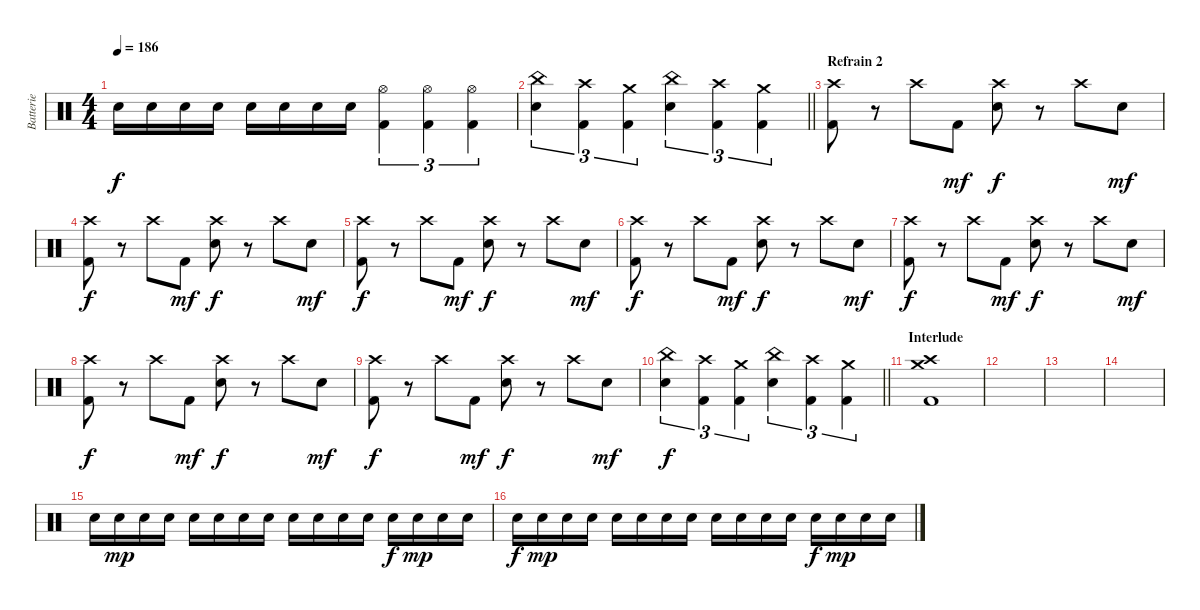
\track ("Batterie" "Batterie") {instrument percussion}
\staff {score}
\articulation defaults
\ts (4 4)
\tempo 186
\clef neutral
\ks c "Electric Snare (hit)".16{dy f} "Electric Snare (hit)".16 "Electric Snare (hit)".16 "Electric Snare (hit)".16 "Electric Snare (hit)".16 "Electric Snare (hit)".16 "Electric Snare (hit)".16 "Electric Snare (hit)".16
("Kick (hit) 2" "Hi-Hat (open)").4{tu (3 2)} ("Kick (hit) 2" "Hi-Hat (open)").4{tu (3 2)} ("Kick (hit) 2" "Hi-Hat (open)").4{tu (3 2)} |
\barLineRight lightlight
("Electric Snare (hit)" "China (hit)").4{tu (3 2)} ("Kick (hit) 2" "Crash high (hit)").4{tu (3 2)} ("Kick (hit) 2" "Crash medium (hit)").4{tu (3 2)} ("Electric Snare (hit)" "China (hit)").4{tu (3 2)} ("Kick (hit) 2" "Crash high (hit)").4{tu (3 2)} ("Kick (hit) 2" "Crash medium (hit)").4{tu (3 2)} |
\section ("" "Refrain 2")
("Kick (hit) 2" "Crash high (hit)").8 r.8 "Crash high (hit)".8 "Kick (hit) 2".8{dy mf} ("Electric Snare (hit)" "Crash high (hit)").8{dy f} r.8 "Crash high (hit)".8 "Electric Snare (hit)".8{dy mf} |
("Kick (hit) 2" "Crash high (hit)").8{dy f} r.8 "Crash high (hit)".8 "Kick (hit) 2".8{dy mf} ("Electric Snare (hit)" "Crash high (hit)").8{dy f} r.8 "Crash high (hit)".8 "Electric Snare (hit)".8{dy mf} |
("Kick (hit) 2" "Crash high (hit)").8{dy f} r.8 "Crash high (hit)".8 "Kick (hit) 2".8{dy mf} ("Electric Snare (hit)" "Crash high (hit)").8{dy f} r.8 "Crash high (hit)".8 "Electric Snare (hit)".8{dy mf} |
("Kick (hit) 2" "Crash high (hit)").8{dy f} r.8 "Crash high (hit)".8 "Kick (hit) 2".8{dy mf} ("Electric Snare (hit)" "Crash high (hit)").8{dy f} r.8 "Crash high (hit)".8 "Electric Snare (hit)".8{dy mf} |
("Kick (hit) 2" "Crash high (hit)").8{dy f} r.8 "Crash high (hit)".8 "Kick (hit) 2".8{dy mf} ("Electric Snare (hit)" "Crash high (hit)").8{dy f} r.8 "Crash high (hit)".8 "Electric Snare (hit)".8{dy mf} |
("Kick (hit) 2" "Crash high (hit)").8{dy f} r.8 "Crash high (hit)".8 "Kick (hit) 2".8{dy mf} ("Electric Snare (hit)" "Crash high (hit)").8{dy f} r.8 "Crash high (hit)".8 "Electric Snare (hit)".8{dy mf} |
("Kick (hit) 2" "Crash high (hit)").8{dy f} r.8 "Crash high (hit)".8 "Kick (hit) 2".8{dy mf} ("Electric Snare (hit)" "Crash high (hit)").8{dy f} r.8 "Crash high (hit)".8 "Electric Snare (hit)".8{dy mf} |
\barLineRight lightlight
("Electric Snare (hit)" "China (hit)").4{tu (3 2) dy f} ("Kick (hit) 2" "Crash high (hit)").4{tu (3 2)} ("Kick (hit) 2" "Crash medium (hit)").4{tu (3 2)} ("Electric Snare (hit)" "China (hit)").4{tu (3 2)} ("Kick (hit) 2" "Crash high (hit)").4{tu (3 2)} ("Kick (hit) 2" "Crash medium (hit)").4{tu (3 2)} |
\section ("" "Interlude")
("Kick (hit) 2" "Crash medium (hit)" "Crash high (hit)").1 |
|
|
|
"Electric Snare (hit)".16 "Electric Snare (hit)".16{dy mp} "Electric Snare (hit)".16 "Electric Snare (hit)".16 "Electric Snare (hit)".16 "Electric Snare (hit)".16 "Electric Snare (hit)".16 "Electric Snare (hit)".16 "Electric Snare (hit)".16 "Electric Snare (hit)".16 "Electric Snare (hit)".16 "Electric Snare (hit)".16 "Electric Snare (hit)".16{dy f} "Electric Snare (hit)".16{dy mp} "Electric Snare (hit)".16 "Electric Snare (hit)".16 |
"Electric Snare (hit)".16{dy f} "Electric Snare (hit)".16{dy mp} "Electric Snare (hit)".16 "Electric Snare (hit)".16 "Electric Snare (hit)".16 "Electric Snare (hit)".16 "Electric Snare (hit)".16 "Electric Snare (hit)".16 "Electric Snare (hit)".16 "Electric Snare (hit)".16 "Electric Snare (hit)".16 "Electric Snare (hit)".16 "Electric Snare (hit)".16{dy f} "Electric Snare (hit)".16{dy mp} "Electric Snare (hit)".16 "Electric Snare (hit)".16
